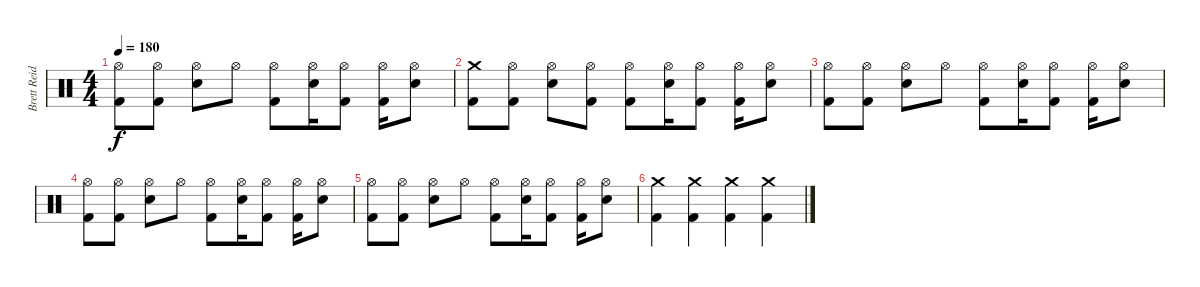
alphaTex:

\track ("Brett Reid" "Brett Reid") {instrument percussion}
\staff {score}
\articulation defaults
\ts (4 4)
\tempo 180
\clef neutral
\ks c
("Hi-Hat (open)" "Kick (hit) 2").8{dy f} ("Hi-Hat (open)" "Kick (hit) 2").8 ("Hi-Hat (open)" "Snare (hit) 2").8 "Hi-Hat (open)".8 ("Hi-Hat (open)" "Kick (hit) 2").8 ("Hi-Hat (open)" "Snare (hit) 2").16 ("Hi-Hat (open)" "Kick (hit) 2").8 ("Hi-Hat (open)" "Kick (hit) 2").16 ("Hi-Hat (open)" "Snare (hit) 2").8 |
("Crash medium (hit)" "Kick (hit) 2").8 ("Hi-Hat (open)" "Kick (hit) 2").8 ("Hi-Hat (open)" "Snare (hit) 2").8 ("Hi-Hat (open)" "Kick (hit) 2").8 ("Hi-Hat (open)" "Kick (hit) 2").8 ("Hi-Hat (open)" "Snare (hit) 2").16 ("Hi-Hat (open)" "Kick (hit) 2").8 ("Hi-Hat (open)" "Kick (hit) 2").16 ("Hi-Hat (open)" "Snare (hit) 2").8 |
("Hi-Hat (open)" "Kick (hit) 2").8 ("Hi-Hat (open)" "Kick (hit) 2").8 ("Hi-Hat (open)" "Snare (hit) 2").8 "Hi-Hat (open)".8 ("Hi-Hat (open)" "Kick (hit) 2").8 ("Hi-Hat (open)" "Snare (hit) 2").16 ("Hi-Hat (open)" "Kick (hit) 2").8 ("Hi-Hat (open)" "Kick (hit) 2").16 ("Hi-Hat (open)" "Snare (hit) 2").8 |
("Hi-Hat (open)" "Kick (hit) 2").8 ("Hi-Hat (open)" "Kick (hit) 2").8 ("Hi-Hat (open)" "Snare (hit) 2").8 "Hi-Hat (open)".8 ("Hi-Hat (open)" "Kick (hit) 2").8 ("Hi-Hat (open)" "Snare (hit) 2").16 ("Hi-Hat (open)" "Kick (hit) 2").8 ("Hi-Hat (open)" "Kick (hit) 2").16 ("Hi-Hat (open)" "Snare (hit) 2").8 |
("Hi-Hat (open)" "Kick (hit) 2").8 ("Hi-Hat (open)" "Kick (hit) 2").8 ("Hi-Hat (open)" "Snare (hit) 2").8 "Hi-Hat (open)".8 ("Hi-Hat (open)" "Kick (hit) 2").8 ("Hi-Hat (open)" "Snare (hit) 2").16 ("Hi-Hat (open)" "Kick (hit) 2").8 ("Hi-Hat (open)" "Kick (hit) 2").16 ("Hi-Hat (open)" "Snare (hit) 2").8 |
("Crash medium (hit)" "Kick (hit) 2").4 ("Crash medium (hit)" "Kick (hit) 2").4 ("Crash medium (hit)" "Kick (hit) 2").4 ("Crash medium (hit)" "Kick (hit) 2").4
